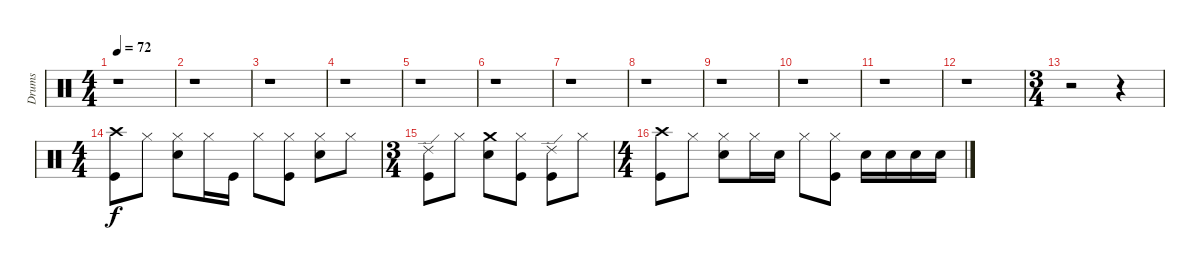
\track ("Drums" "Drums") {instrument percussion}
\staff {score}
\articulation defaults
\ts (4 4)
\tempo 72
\clef neutral
\ks c
r.1{dy f} |
r.1 |
r.1 |
r.1 |
r.1 |
r.1 |
r.1 |
r.1 |
r.1 |
r.1 |
r.1 |
r.1 |
\ts (3 4)
r.2 r.4 |
\ts (4 4)
("Kick (hit)" "Crash high (hit)").8 "Hi-Hat (closed)".8 ("Electric Snare (hit)" "Hi-Hat (closed)").8 "Hi-Hat (closed)".16 "Kick (hit)".16 "Hi-Hat (closed)".8 ("Kick (hit)" "Hi-Hat (closed)").8 ("Electric Snare (hit)" "Hi-Hat (closed)").8 "Hi-Hat (closed)".8 |
\ts (3 4)
("Kick (hit)" "Ride (edge) 2").8 "Hi-Hat (closed)".8 ("Electric Snare (hit)" "Crash medium (hit)").8 ("Kick (hit)" "Hi-Hat (closed)").8 ("Kick (hit)" "Ride (edge) 2").8 "Hi-Hat (closed)".8 |
\ts (4 4)
("Kick (hit)" "Crash high (hit)").8 "Hi-Hat (closed)".8 ("Electric Snare (hit)" "Hi-Hat (closed)").8 "Hi-Hat (closed)".16 "Electric Snare (hit)".16 "Hi-Hat (closed)".8 ("Kick (hit)" "Hi-Hat (closed)").8 "Electric Snare (hit)".16 "Electric Snare (hit)".16 "Electric Snare (hit)".16 "Electric Snare (hit)".16
